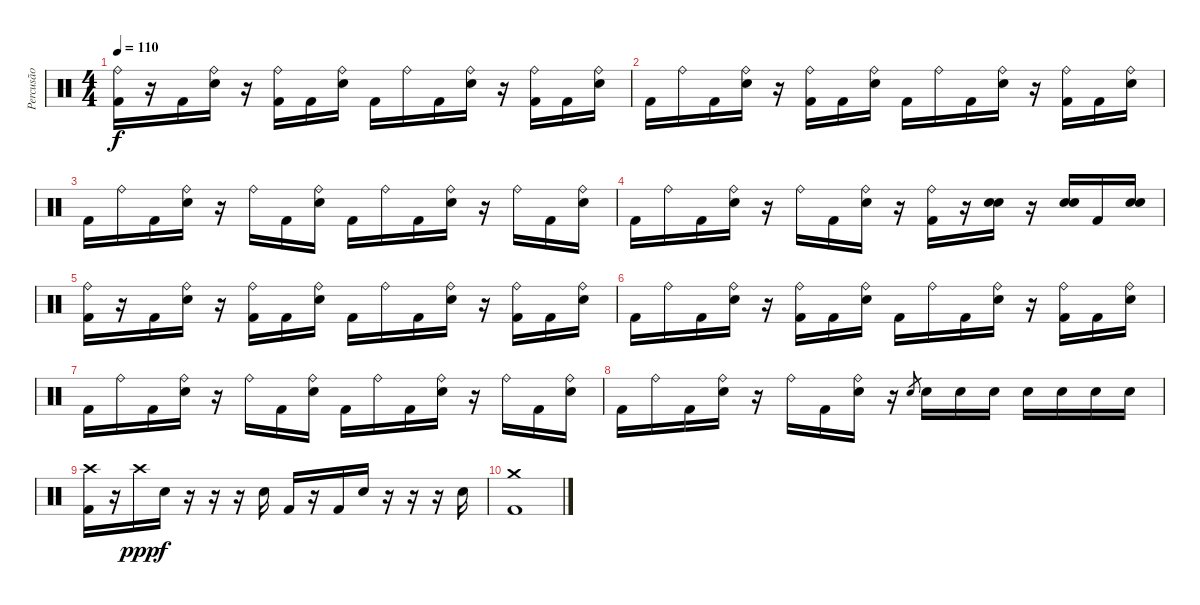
\track ("Percusão" "Percusão") {instrument percussion}
\staff {score}
\articulation defaults
\ts (4 4)
\tempo 110
\clef neutral
\ks c
("Ride (bell)" "Kick (hit) 2").16{dy f} r.16 "Kick (hit) 2".16 ("Ride (bell)" "Snare (hit) 2").16 r.16 ("Ride (bell)" "Kick (hit) 2").16 "Kick (hit) 2".16 ("Ride (bell)" "Snare (hit) 2").16 "Kick (hit) 2".16 "Ride (bell)".16 "Kick (hit) 2".16 ("Ride (bell)" "Snare (hit) 2").16 r.16 ("Ride (bell)" "Kick (hit) 2").16 "Kick (hit) 2".16 ("Ride (bell)" "Snare (hit) 2").16 |
"Kick (hit) 2".16 "Ride (bell)".16 "Kick (hit) 2".16 ("Ride (bell)" "Snare (hit) 2").16 r.16 ("Ride (bell)" "Kick (hit) 2").16 "Kick (hit) 2".16 ("Ride (bell)" "Snare (hit) 2").16 "Kick (hit) 2".16 "Ride (bell)".16 "Kick (hit) 2".16 ("Ride (bell)" "Snare (hit) 2").16 r.16 ("Ride (bell)" "Kick (hit) 2").16 "Kick (hit) 2".16 ("Ride (bell)" "Snare (hit) 2").16 |
"Kick (hit) 2".16 "Ride (bell)".16 "Kick (hit) 2".16 ("Ride (bell)" "Snare (hit) 2").16 r.16 "Ride (bell)".16 "Kick (hit) 2".16 ("Ride (bell)" "Snare (hit) 2").16 "Kick (hit) 2".16 "Ride (bell)".16 "Kick (hit) 2".16 ("Ride (bell)" "Snare (hit) 2").16 r.16 "Ride (bell)".16 "Kick (hit) 2".16 ("Ride (bell)" "Snare (hit) 2").16 |
"Kick (hit) 2".16 "Ride (bell)".16 "Kick (hit) 2".16 ("Ride (bell)" "Snare (hit) 2").16 r.16 "Ride (bell)".16 "Kick (hit) 2".16 ("Ride (bell)" "Snare (hit) 2").16 r.16 ("Ride (bell)" "Kick (hit) 2").16 r.16 ("Snare (hit) 2" "Snare (hit) 2").16 r.16 ("Snare (hit) 2" "Snare (hit) 2").16 "Kick (hit) 2".16 ("Snare (hit) 2" "Snare (hit) 2").16 |
("Ride (bell)" "Kick (hit) 2").16 r.16 "Kick (hit) 2".16 ("Ride (bell)" "Snare (hit) 2").16 r.16 ("Ride (bell)" "Kick (hit) 2").16 "Kick (hit) 2".16 ("Ride (bell)" "Snare (hit) 2").16 "Kick (hit) 2".16 "Ride (bell)".16 "Kick (hit) 2".16 ("Ride (bell)" "Snare (hit) 2").16 r.16 ("Ride (bell)" "Kick (hit) 2").16 "Kick (hit) 2".16 ("Ride (bell)" "Snare (hit) 2").16 |
"Kick (hit) 2".16 "Ride (bell)".16 "Kick (hit) 2".16 ("Ride (bell)" "Snare (hit) 2").16 r.16 ("Ride (bell)" "Kick (hit) 2").16 "Kick (hit) 2".16 ("Ride (bell)" "Snare (hit) 2").16 "Kick (hit) 2".16 "Ride (bell)".16 "Kick (hit) 2".16 ("Ride (bell)" "Snare (hit) 2").16 r.16 ("Ride (bell)" "Kick (hit) 2").16 "Kick (hit) 2".16 ("Ride (bell)" "Snare (hit) 2").16 |
"Kick (hit) 2".16 "Ride (bell)".16 "Kick (hit) 2".16 ("Ride (bell)" "Snare (hit) 2").16 r.16 "Ride (bell)".16 "Kick (hit) 2".16 ("Ride (bell)" "Snare (hit) 2").16 "Kick (hit) 2".16 "Ride (bell)".16 "Kick (hit) 2".16 ("Ride (bell)" "Snare (hit) 2").16 r.16 "Ride (bell)".16 "Kick (hit) 2".16 ("Ride (bell)" "Snare (hit) 2").16 |
"Kick (hit) 2".16 "Ride (bell)".16 "Kick (hit) 2".16 ("Ride (bell)" "Snare (hit) 2").16 r.16 "Ride (bell)".16 "Kick (hit) 2".16 ("Ride (bell)" "Snare (hit) 2").16 r.16 "Snare (hit) 2".8{gr} "Snare (hit) 2".16 "Snare (hit) 2".16 "Snare (hit) 2".16 "Snare (hit) 2".16 "Snare (hit) 2".16 "Snare (hit) 2".16 "Snare (hit) 2".16 |
("Crash high (hit)" "Kick (hit) 2").16 r.16 "Crash high (hit)".16{dy ppp} "Snare (hit) 2".16{dy f} r.16 r.16 r.16 "Snare (hit) 2".16 "Kick (hit) 2".16 r.16 "Kick (hit) 2".16 "Snare (hit) 2".16 r.16 r.16 r.16 "Snare (hit) 2".16 |
("Crash medium (hit)" "Kick (hit) 2").1
